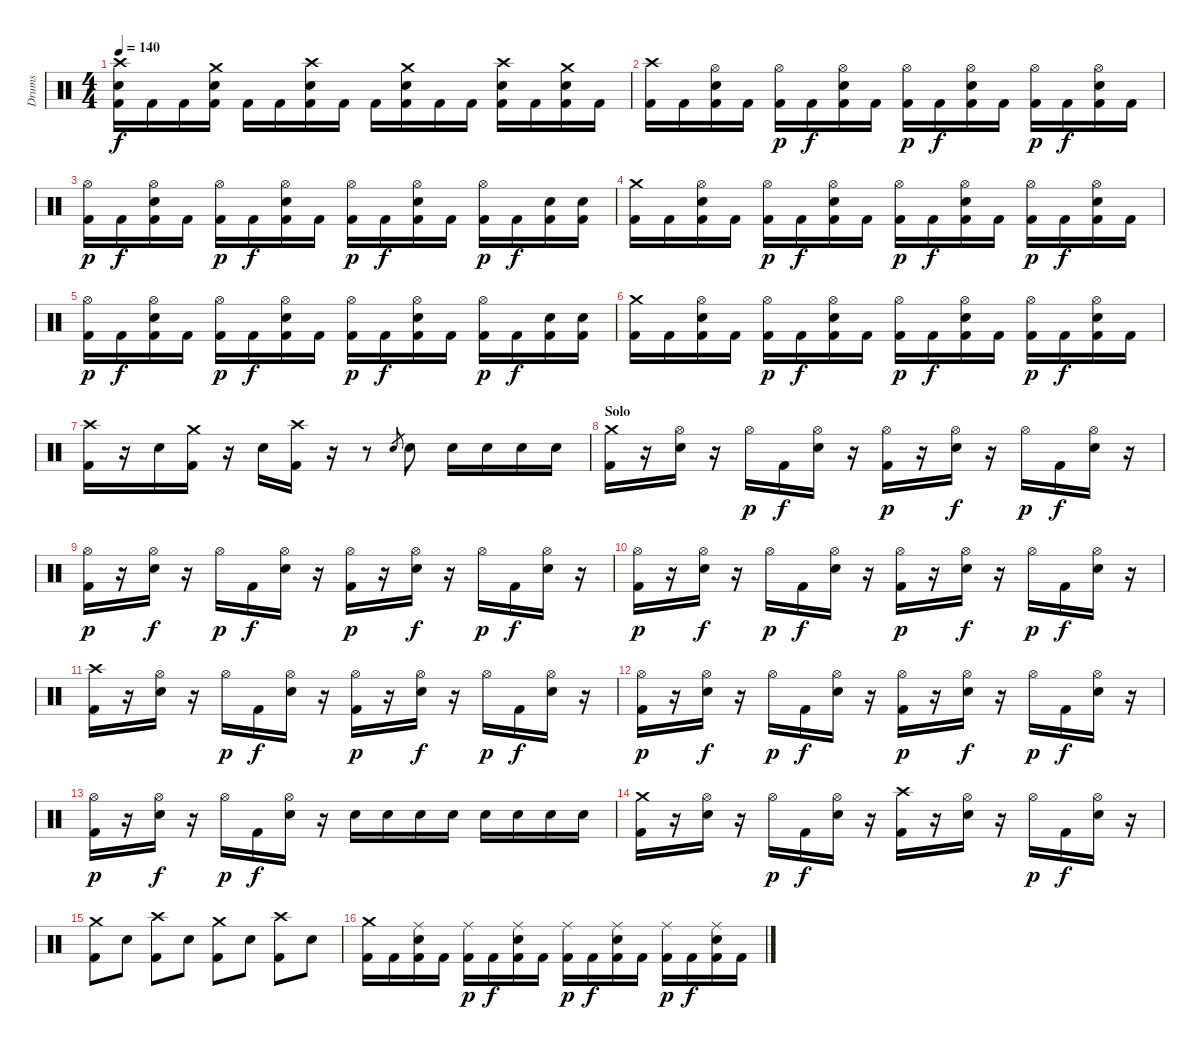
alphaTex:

\track ("Drums" "Drums") {instrument percussion}
\staff {score}
\articulation defaults
\ts (4 4)
\tempo 140
\clef neutral
\ks c
("Crash high (hit)" "Snare (hit) 2" "Kick (hit) 2").16{dy f} "Kick (hit) 2".16 "Kick (hit) 2".16 ("Crash medium (hit)" "Snare (hit) 2" "Kick (hit) 2").16 "Kick (hit) 2".16 "Kick (hit) 2".16 ("Crash high (hit)" "Snare (hit) 2" "Kick (hit) 2").16 "Kick (hit) 2".16 "Kick (hit) 2".16 ("Crash medium (hit)" "Snare (hit) 2" "Kick (hit) 2").16 "Kick (hit) 2".16 "Kick (hit) 2".16 ("Crash high (hit)" "Snare (hit) 2" "Kick (hit) 2").16 "Kick (hit) 2".16 ("Crash medium (hit)" "Snare (hit) 2" "Kick (hit) 2").16 "Kick (hit) 2".16 |
("Crash high (hit)" "Kick (hit) 2").16 "Kick (hit) 2".16 ("Hi-Hat (open)" "Snare (hit) 2" "Kick (hit) 2").16 "Kick (hit) 2".16 ("Hi-Hat (open)" "Kick (hit) 2").16{dy p} "Kick (hit) 2".16{dy f} ("Hi-Hat (open)" "Snare (hit) 2" "Kick (hit) 2").16 "Kick (hit) 2".16 ("Hi-Hat (open)" "Kick (hit) 2").16{dy p} "Kick (hit) 2".16{dy f} ("Hi-Hat (open)" "Snare (hit) 2" "Kick (hit) 2").16 "Kick (hit) 2".16 ("Hi-Hat (open)" "Kick (hit) 2").16{dy p} "Kick (hit) 2".16{dy f} ("Hi-Hat (open)" "Snare (hit) 2" "Kick (hit) 2").16 "Kick (hit) 2".16 |
("Hi-Hat (open)" "Kick (hit) 2").16{dy p} "Kick (hit) 2".16{dy f} ("Hi-Hat (open)" "Snare (hit) 2" "Kick (hit) 2").16 "Kick (hit) 2".16 ("Hi-Hat (open)" "Kick (hit) 2").16{dy p} "Kick (hit) 2".16{dy f} ("Hi-Hat (open)" "Snare (hit) 2" "Kick (hit) 2").16 "Kick (hit) 2".16 ("Hi-Hat (open)" "Kick (hit) 2").16{dy p} "Kick (hit) 2".16{dy f} ("Hi-Hat (open)" "Snare (hit) 2" "Kick (hit) 2").16 "Kick (hit) 2".16 ("Hi-Hat (open)" "Kick (hit) 2").16{dy p} "Kick (hit) 2".16{dy f} ("Snare (hit) 2" "Kick (hit) 2").16 ("Snare (hit) 2" "Kick (hit) 2").16 |
("Crash medium (hit)" "Kick (hit) 2").16 "Kick (hit) 2".16 ("Hi-Hat (open)" "Snare (hit) 2" "Kick (hit) 2").16 "Kick (hit) 2".16 ("Hi-Hat (open)" "Kick (hit) 2").16{dy p} "Kick (hit) 2".16{dy f} ("Hi-Hat (open)" "Snare (hit) 2" "Kick (hit) 2").16 "Kick (hit) 2".16 ("Hi-Hat (open)" "Kick (hit) 2").16{dy p} "Kick (hit) 2".16{dy f} ("Hi-Hat (open)" "Snare (hit) 2" "Kick (hit) 2").16 "Kick (hit) 2".16 ("Hi-Hat (open)" "Kick (hit) 2").16{dy p} "Kick (hit) 2".16{dy f} ("Hi-Hat (open)" "Snare (hit) 2" "Kick (hit) 2").16 "Kick (hit) 2".16 |
("Hi-Hat (open)" "Kick (hit) 2").16{dy p} "Kick (hit) 2".16{dy f} ("Hi-Hat (open)" "Snare (hit) 2" "Kick (hit) 2").16 "Kick (hit) 2".16 ("Hi-Hat (open)" "Kick (hit) 2").16{dy p} "Kick (hit) 2".16{dy f} ("Hi-Hat (open)" "Snare (hit) 2" "Kick (hit) 2").16 "Kick (hit) 2".16 ("Hi-Hat (open)" "Kick (hit) 2").16{dy p} "Kick (hit) 2".16{dy f} ("Hi-Hat (open)" "Snare (hit) 2" "Kick (hit) 2").16 "Kick (hit) 2".16 ("Hi-Hat (open)" "Kick (hit) 2").16{dy p} "Kick (hit) 2".16{dy f} ("Snare (hit) 2" "Kick (hit) 2").16 ("Snare (hit) 2" "Kick (hit) 2").16 |
("Crash medium (hit)" "Kick (hit) 2").16 "Kick (hit) 2".16 ("Hi-Hat (open)" "Snare (hit) 2" "Kick (hit) 2").16 "Kick (hit) 2".16 ("Hi-Hat (open)" "Kick (hit) 2").16{dy p} "Kick (hit) 2".16{dy f} ("Hi-Hat (open)" "Snare (hit) 2" "Kick (hit) 2").16 "Kick (hit) 2".16 ("Hi-Hat (open)" "Kick (hit) 2").16{dy p} "Kick (hit) 2".16{dy f} ("Hi-Hat (open)" "Snare (hit) 2" "Kick (hit) 2").16 "Kick (hit) 2".16 ("Hi-Hat (open)" "Kick (hit) 2").16{dy p} "Kick (hit) 2".16{dy f} ("Hi-Hat (open)" "Snare (hit) 2" "Kick (hit) 2").16 "Kick (hit) 2".16 |
("Crash high (hit)" "Kick (hit) 2").16 r.16 "Snare (hit) 2".16 ("Crash medium (hit)" "Kick (hit) 2").16 r.16 "Snare (hit) 2".16 ("Crash high (hit)" "Kick (hit) 2").16 r.16 r.8 "Snare (hit) 2".8{gr} "Snare (hit) 2".8 "Snare (hit) 2".16 "Snare (hit) 2".16 "Snare (hit) 2".16 "Snare (hit) 2".16 |
\section ("" "Solo")
("Crash medium (hit)" "Kick (hit) 2").16 r.16 ("Hi-Hat (open)" "Snare (hit) 2").16 r.16 "Hi-Hat (open)".16{dy p} "Kick (hit) 2".16{dy f} ("Hi-Hat (open)" "Snare (hit) 2").16 r.16 ("Hi-Hat (open)" "Kick (hit) 2").16{dy p} r.16 ("Hi-Hat (open)" "Snare (hit) 2").16{dy f} r.16 "Hi-Hat (open)".16{dy p} "Kick (hit) 2".16{dy f} ("Hi-Hat (open)" "Snare (hit) 2").16 r.16 |
("Hi-Hat (open)" "Kick (hit) 2").16{dy p} r.16 ("Hi-Hat (open)" "Snare (hit) 2").16{dy f} r.16 "Hi-Hat (open)".16{dy p} "Kick (hit) 2".16{dy f} ("Hi-Hat (open)" "Snare (hit) 2").16 r.16 ("Hi-Hat (open)" "Kick (hit) 2").16{dy p} r.16 ("Hi-Hat (open)" "Snare (hit) 2").16{dy f} r.16 "Hi-Hat (open)".16{dy p} "Kick (hit) 2".16{dy f} ("Hi-Hat (open)" "Snare (hit) 2").16 r.16 |
("Hi-Hat (open)" "Kick (hit) 2").16{dy p} r.16 ("Hi-Hat (open)" "Snare (hit) 2").16{dy f} r.16 "Hi-Hat (open)".16{dy p} "Kick (hit) 2".16{dy f} ("Hi-Hat (open)" "Snare (hit) 2").16 r.16 ("Hi-Hat (open)" "Kick (hit) 2").16{dy p} r.16 ("Hi-Hat (open)" "Snare (hit) 2").16{dy f} r.16 "Hi-Hat (open)".16{dy p} "Kick (hit) 2".16{dy f} ("Hi-Hat (open)" "Snare (hit) 2").16 r.16 |
("Crash high (hit)" "Kick (hit) 2").16 r.16 ("Hi-Hat (open)" "Snare (hit) 2").16 r.16 "Hi-Hat (open)".16{dy p} "Kick (hit) 2".16{dy f} ("Hi-Hat (open)" "Snare (hit) 2").16 r.16 ("Hi-Hat (open)" "Kick (hit) 2").16{dy p} r.16 ("Hi-Hat (open)" "Snare (hit) 2").16{dy f} r.16 "Hi-Hat (open)".16{dy p} "Kick (hit) 2".16{dy f} ("Hi-Hat (open)" "Snare (hit) 2").16 r.16 |
("Hi-Hat (open)" "Kick (hit) 2").16{dy p} r.16 ("Hi-Hat (open)" "Snare (hit) 2").16{dy f} r.16 "Hi-Hat (open)".16{dy p} "Kick (hit) 2".16{dy f} ("Hi-Hat (open)" "Snare (hit) 2").16 r.16 ("Hi-Hat (open)" "Kick (hit) 2").16{dy p} r.16 ("Hi-Hat (open)" "Snare (hit) 2").16{dy f} r.16 "Hi-Hat (open)".16{dy p} "Kick (hit) 2".16{dy f} ("Hi-Hat (open)" "Snare (hit) 2").16 r.16 |
("Hi-Hat (open)" "Kick (hit) 2").16{dy p} r.16 ("Hi-Hat (open)" "Snare (hit) 2").16{dy f} r.16 "Hi-Hat (open)".16{dy p} "Kick (hit) 2".16{dy f} ("Hi-Hat (open)" "Snare (hit) 2").16 r.16 "Snare (hit) 2".16 "Snare (hit) 2".16 "Snare (hit) 2".16 "Snare (hit) 2".16 "Snare (hit) 2".16 "Snare (hit) 2".16 "Snare (hit) 2".16 "Snare (hit) 2".16 |
("Crash medium (hit)" "Kick (hit) 2").16 r.16 ("Hi-Hat (open)" "Snare (hit) 2").16 r.16 "Hi-Hat (open)".16{dy p} "Kick (hit) 2".16{dy f} ("Hi-Hat (open)" "Snare (hit) 2").16 r.16 ("Crash high (hit)" "Kick (hit) 2").16 r.16 ("Hi-Hat (open)" "Snare (hit) 2").16 r.16 "Hi-Hat (open)".16{dy p} "Kick (hit) 2".16{dy f} ("Hi-Hat (open)" "Snare (hit) 2").16 r.16 |
("Crash medium (hit)" "Kick (hit) 2").8 "Snare (hit) 2".8 ("Crash high (hit)" "Kick (hit) 2").8 "Snare (hit) 2".8 ("Crash medium (hit)" "Kick (hit) 2").8 "Snare (hit) 2".8 ("Crash high (hit)" "Kick (hit) 2").8 "Snare (hit) 2".8 |
\section ("" "")
("Crash medium (hit)" "Kick (hit) 2").16 "Kick (hit) 2".16 ("Ride (middle)" "Snare (hit) 2" "Kick (hit) 2").16 "Kick (hit) 2".16 ("Ride (middle)" "Kick (hit) 2").16{dy p} "Kick (hit) 2".16{dy f} ("Ride (middle)" "Snare (hit) 2" "Kick (hit) 2").16 "Kick (hit) 2".16 ("Ride (middle)" "Kick (hit) 2").16{dy p} "Kick (hit) 2".16{dy f} ("Ride (middle)" "Snare (hit) 2" "Kick (hit) 2").16 "Kick (hit) 2".16 ("Ride (middle)" "Kick (hit) 2").16{dy p} "Kick (hit) 2".16{dy f} ("Ride (middle)" "Snare (hit) 2" "Kick (hit) 2").16 "Kick (hit) 2".16
